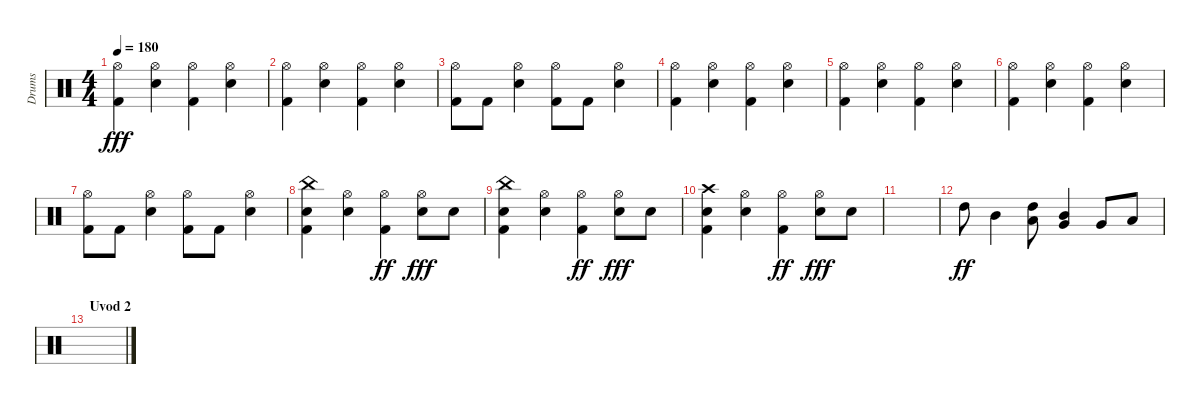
\track ("Drums" "Drums") {instrument percussion}
\staff {score}
\articulation defaults
\ts (4 4)
\tempo 180
\clef neutral
\ks c
("Hi-Hat (open)" "Kick (hit) 2").4{dy fff} ("Hi-Hat (open)" "Snare (hit) 2").4 ("Hi-Hat (open)" "Kick (hit) 2").4 ("Hi-Hat (open)" "Snare (hit) 2").4 |
("Hi-Hat (open)" "Kick (hit) 2").4 ("Hi-Hat (open)" "Snare (hit) 2").4 ("Hi-Hat (open)" "Kick (hit) 2").4 ("Hi-Hat (open)" "Snare (hit) 2").4 |
("Hi-Hat (open)" "Kick (hit) 2").8 "Kick (hit) 2".8 ("Hi-Hat (open)" "Snare (hit) 2").4 ("Hi-Hat (open)" "Kick (hit) 2").8 "Kick (hit) 2".8 ("Hi-Hat (open)" "Snare (hit) 2").4 |
("Hi-Hat (open)" "Kick (hit) 2").4 ("Hi-Hat (open)" "Snare (hit) 2").4 ("Hi-Hat (open)" "Kick (hit) 2").4 ("Hi-Hat (open)" "Snare (hit) 2").4 |
("Hi-Hat (open)" "Kick (hit) 2").4 ("Hi-Hat (open)" "Snare (hit) 2").4 ("Hi-Hat (open)" "Kick (hit) 2").4 ("Hi-Hat (open)" "Snare (hit) 2").4 |
("Hi-Hat (open)" "Kick (hit) 2").4 ("Hi-Hat (open)" "Snare (hit) 2").4 ("Hi-Hat (open)" "Kick (hit) 2").4 ("Hi-Hat (open)" "Snare (hit) 2").4 |
("Hi-Hat (open)" "Kick (hit) 2").8 "Kick (hit) 2".8 ("Hi-Hat (open)" "Snare (hit) 2").4 ("Hi-Hat (open)" "Kick (hit) 2").8 "Kick (hit) 2".8 ("Hi-Hat (open)" "Snare (hit) 2").4 |
("China (hit)" "Snare (hit) 2" "Kick (hit) 2").4 ("Hi-Hat (open)" "Snare (hit) 2").4 ("Hi-Hat (open)" "Kick (hit) 2").4{dy ff} ("Hi-Hat (open)" "Snare (hit) 2").8{dy fff} "Snare (hit) 2".8 |
("China (hit)" "Snare (hit) 2" "Kick (hit) 2").4 ("Hi-Hat (open)" "Snare (hit) 2").4 ("Hi-Hat (open)" "Kick (hit) 2").4{dy ff} ("Hi-Hat (open)" "Snare (hit) 2").8{dy fff} "Snare (hit) 2".8 |
("Crash high (hit)" "Snare (hit) 2" "Kick (hit) 2").4 ("Hi-Hat (open)" "Snare (hit) 2").4 ("Hi-Hat (open)" "Kick (hit) 2").4{dy ff} ("Hi-Hat (open)" "Snare (hit) 2").8{dy fff} "Snare (hit) 2".8 |
|
"High Tom (hit)".8{dy ff} "Mid Tom (hit)".4 ("High Tom (hit)" "Low Tom (hit)").8 ("Mid Tom (hit)" "Very Low Tom (hit)").4 "Very Low Tom (hit)".8 "Low Floor Tom (hit)".8 |
\section ("" "Uvod 2")
